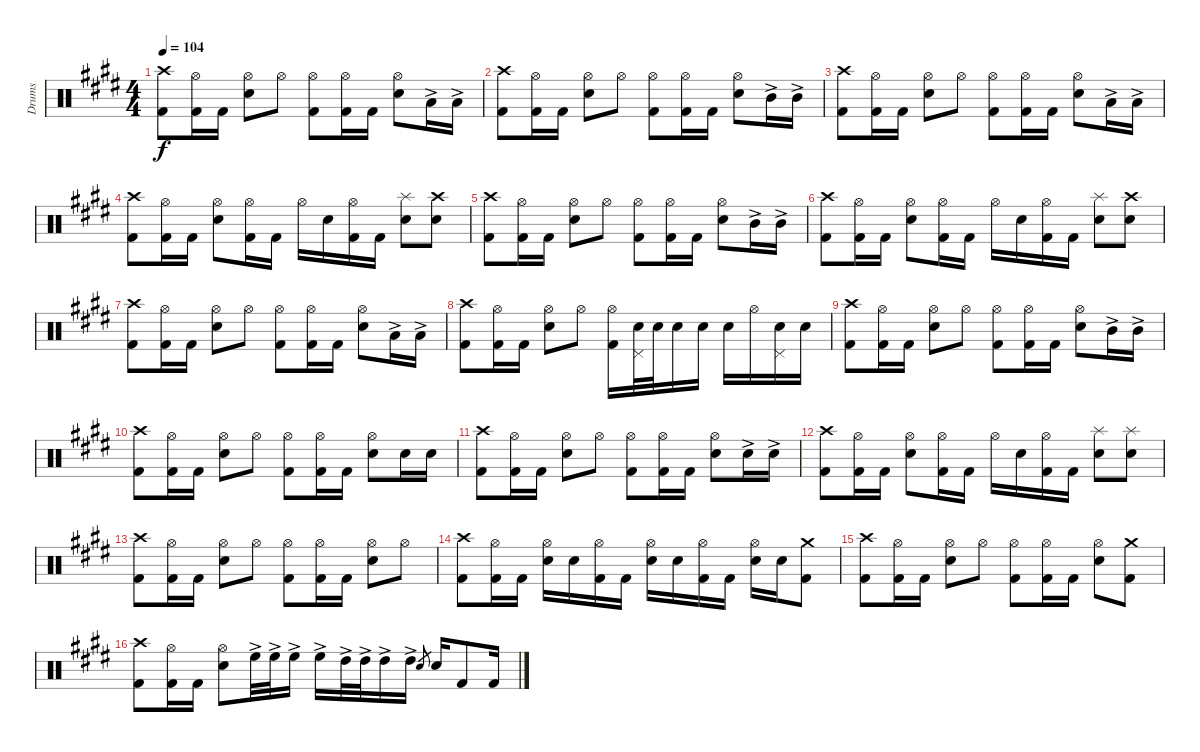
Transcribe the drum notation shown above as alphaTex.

\defaultSystemsLayout 4
\bracketExtendMode groupsimilarinstruments
\otherSystemsTrackNameOrientation horizontal
\track ("Drumkit" "Drums") {multiBarRest instrument percussion}
\staff {score}
\articulation defaults
\ts (4 4)
\tempo 104
\clef neutral
\ks c#minor
("Crash high (hit)"{acc forcenatural} "Kick (hit) 2"{acc forcenatural}).8{dy f} ("Kick (hit) 2"{acc forcenatural} "Hi-Hat (open)"{acc forcenatural}).16 "Kick (hit) 2"{acc forcenatural}.16 ("Hi-Hat (open)"{acc forcenatural} "Snare (hit) 2"{acc forcenatural}).8 "Hi-Hat (open)"{acc forcenatural}.8 ("Hi-Hat (open)"{acc forcenatural} "Kick (hit) 2"{acc forcenatural}).8 ("Kick (hit) 2"{acc forcenatural} "Hi-Hat (open)"{acc forcenatural}).16 "Kick (hit) 2"{acc forcenatural}.16 ("Hi-Hat (open)"{acc forcenatural} "Snare (hit) 2"{acc forcenatural}).8 "Low Tom (hit)"{ac acc forcenatural}.16 "Low Tom (hit)"{ac acc forcenatural}.16 |
("Crash high (hit)"{acc forcenatural} "Kick (hit) 2"{acc forcenatural}).8 ("Kick (hit) 2"{acc forcenatural} "Hi-Hat (open)"{acc forcenatural}).16 "Kick (hit) 2"{acc forcenatural}.16 ("Hi-Hat (open)"{acc forcenatural} "Snare (hit) 2"{acc forcenatural}).8 "Hi-Hat (open)"{acc forcenatural}.8 ("Hi-Hat (open)"{acc forcenatural} "Kick (hit) 2"{acc forcenatural}).8 ("Kick (hit) 2"{acc forcenatural} "Hi-Hat (open)"{acc forcenatural}).16 "Kick (hit) 2"{acc forcenatural}.16 ("Hi-Hat (open)"{acc forcenatural} "Snare (hit) 2"{acc forcenatural}).8 "Mid Tom (hit)"{ac acc forcenatural}.16 "Mid Tom (hit)"{ac acc forcenatural}.16 |
("Crash high (hit)"{acc forcenatural} "Kick (hit) 2"{acc forcenatural}).8 ("Kick (hit) 2"{acc forcenatural} "Hi-Hat (open)"{acc forcenatural}).16 "Kick (hit) 2"{acc forcenatural}.16 ("Hi-Hat (open)"{acc forcenatural} "Snare (hit) 2"{acc forcenatural}).8 "Hi-Hat (open)"{acc forcenatural}.8 ("Hi-Hat (open)"{acc forcenatural} "Kick (hit) 2"{acc forcenatural}).8 ("Kick (hit) 2"{acc forcenatural} "Hi-Hat (open)"{acc forcenatural}).16 "Kick (hit) 2"{acc forcenatural}.16 ("Hi-Hat (open)"{acc forcenatural} "Snare (hit) 2"{acc forcenatural}).8 "Low Tom (hit)"{ac acc forcenatural}.16 "Low Tom (hit)"{ac acc forcenatural}.16 |
("Crash high (hit)"{acc forcenatural} "Kick (hit) 2"{acc forcenatural}).8 ("Kick (hit) 2"{acc forcenatural} "Hi-Hat (open)"{acc forcenatural}).16 "Kick (hit) 2"{acc forcenatural}.16 ("Hi-Hat (open)"{acc forcenatural} "Snare (hit) 2"{acc forcenatural}).8 ("Hi-Hat (open)"{acc forcenatural} "Kick (hit) 2"{acc forcenatural}).16 "Kick (hit) 2"{acc forcenatural}.16 "Hi-Hat (open)"{acc forcenatural}.16 "Snare (hit) 2"{acc forcenatural}.16 ("Kick (hit) 2"{acc forcenatural} "Hi-Hat (open)"{acc forcenatural}).16 "Kick (hit) 2"{acc forcenatural}.16 ("Snare (hit) 2"{acc forcenatural} "Splash (hit)"{acc forcenatural}).8 ("Snare (hit) 2"{acc forcenatural} "Crash high (hit)"{acc forcenatural}).8 |
("Crash high (hit)"{acc forcenatural} "Kick (hit) 2"{acc forcenatural}).8 ("Kick (hit) 2"{acc forcenatural} "Hi-Hat (open)"{acc forcenatural}).16 "Kick (hit) 2"{acc forcenatural}.16 ("Hi-Hat (open)"{acc forcenatural} "Snare (hit) 2"{acc forcenatural}).8 "Hi-Hat (open)"{acc forcenatural}.8 ("Hi-Hat (open)"{acc forcenatural} "Kick (hit) 2"{acc forcenatural}).8 ("Kick (hit) 2"{acc forcenatural} "Hi-Hat (open)"{acc forcenatural}).16 "Kick (hit) 2"{acc forcenatural}.16 ("Hi-Hat (open)"{acc forcenatural} "Snare (hit) 2"{acc forcenatural}).8 "Mid Tom (hit)"{ac acc forcenatural}.16 "Mid Tom (hit)"{ac acc forcenatural}.16 |
("Crash high (hit)"{acc forcenatural} "Kick (hit) 2"{acc forcenatural}).8 ("Kick (hit) 2"{acc forcenatural} "Hi-Hat (open)"{acc forcenatural}).16 "Kick (hit) 2"{acc forcenatural}.16 ("Hi-Hat (open)"{acc forcenatural} "Snare (hit) 2"{acc forcenatural}).8 ("Hi-Hat (open)"{acc forcenatural} "Kick (hit) 2"{acc forcenatural}).16 "Kick (hit) 2"{acc forcenatural}.16 "Hi-Hat (open)"{acc forcenatural}.16 "Snare (hit) 2"{acc forcenatural}.16 ("Kick (hit) 2"{acc forcenatural} "Hi-Hat (open)"{acc forcenatural}).16 "Kick (hit) 2"{acc forcenatural}.16 ("Snare (hit) 2"{acc forcenatural} "Splash (hit)"{acc forcenatural}).8 ("Snare (hit) 2"{acc forcenatural} "Crash high (hit)"{acc forcenatural}).8 |
("Crash high (hit)"{acc forcenatural} "Kick (hit) 2"{acc forcenatural}).8 ("Kick (hit) 2"{acc forcenatural} "Hi-Hat (open)"{acc forcenatural}).16 "Kick (hit) 2"{acc forcenatural}.16 ("Hi-Hat (open)"{acc forcenatural} "Snare (hit) 2"{acc forcenatural}).8 "Hi-Hat (open)"{acc forcenatural}.8 ("Hi-Hat (open)"{acc forcenatural} "Kick (hit) 2"{acc forcenatural}).8 ("Kick (hit) 2"{acc forcenatural} "Hi-Hat (open)"{acc forcenatural}).16 "Kick (hit) 2"{acc forcenatural}.16 ("Hi-Hat (open)"{acc forcenatural} "Snare (hit) 2"{acc forcenatural}).8 "Low Tom (hit)"{ac acc forcenatural}.16 "Low Tom (hit)"{ac acc forcenatural}.16 |
("Crash high (hit)"{acc forcenatural} "Kick (hit) 2"{acc forcenatural}).8 ("Kick (hit) 2"{acc forcenatural} "Hi-Hat (open)"{acc forcenatural}).16 "Kick (hit) 2"{acc forcenatural}.16 ("Hi-Hat (open)"{acc forcenatural} "Snare (hit) 2"{acc forcenatural}).8 "Hi-Hat (open)"{acc forcenatural}.8 ("Hi-Hat (open)"{acc forcenatural} "Kick (hit) 2"{acc forcenatural}).16 ("Snare (hit) 2"{acc forcenatural} "Pedal Hi-Hat (hit)"{acc forcenatural}).32 "Snare (hit) 2"{acc forcenatural}.32 "Snare (hit) 2"{acc forcenatural}.16 "Snare (hit) 2"{acc forcenatural}.16 "Snare (hit) 2"{acc forcenatural}.16 "Hi-Hat (open)"{acc forcenatural}.16 ("Snare (hit) 2"{acc forcenatural} "Pedal Hi-Hat (hit)"{acc forcenatural}).16 "Snare (hit) 2"{acc forcenatural}.16 |
("Crash high (hit)"{acc forcenatural} "Kick (hit) 2"{acc forcenatural}).8 ("Kick (hit) 2"{acc forcenatural} "Hi-Hat (open)"{acc forcenatural}).16 "Kick (hit) 2"{acc forcenatural}.16 ("Hi-Hat (open)"{acc forcenatural} "Snare (hit) 2"{acc forcenatural}).8 "Hi-Hat (open)"{acc forcenatural}.8 ("Hi-Hat (open)"{acc forcenatural} "Kick (hit) 2"{acc forcenatural}).8 ("Kick (hit) 2"{acc forcenatural} "Hi-Hat (open)"{acc forcenatural}).16 "Kick (hit) 2"{acc forcenatural}.16 ("Hi-Hat (open)"{acc forcenatural} "Snare (hit) 2"{acc forcenatural}).8 "Mid Tom (hit)"{ac acc forcenatural}.16 "Mid Tom (hit)"{ac acc forcenatural}.16 |
("Crash high (hit)"{acc forcenatural} "Kick (hit) 2"{acc forcenatural}).8 ("Kick (hit) 2"{acc forcenatural} "Hi-Hat (open)"{acc forcenatural}).16 "Kick (hit) 2"{acc forcenatural}.16 ("Hi-Hat (open)"{acc forcenatural} "Snare (hit) 2"{acc forcenatural}).8 "Hi-Hat (open)"{acc forcenatural}.8 ("Hi-Hat (open)"{acc forcenatural} "Kick (hit) 2"{acc forcenatural}).8 ("Kick (hit) 2"{acc forcenatural} "Hi-Hat (open)"{acc forcenatural}).16 "Kick (hit) 2"{acc forcenatural}.16 ("Hi-Hat (open)"{acc forcenatural} "Snare (hit) 2"{acc forcenatural}).8 "Snare (hit) 2"{acc forcenatural}.16 "Snare (hit) 2"{acc forcenatural}.16 |
("Crash high (hit)"{acc forcenatural} "Kick (hit) 2"{acc forcenatural}).8 ("Kick (hit) 2"{acc forcenatural} "Hi-Hat (open)"{acc forcenatural}).16 "Kick (hit) 2"{acc forcenatural}.16 ("Hi-Hat (open)"{acc forcenatural} "Snare (hit) 2"{acc forcenatural}).8 "Hi-Hat (open)"{acc forcenatural}.8 ("Hi-Hat (open)"{acc forcenatural} "Kick (hit) 2"{acc forcenatural}).8 ("Kick (hit) 2"{acc forcenatural} "Hi-Hat (open)"{acc forcenatural}).16 "Kick (hit) 2"{acc forcenatural}.16 ("Hi-Hat (open)"{acc forcenatural} "Snare (hit) 2"{acc forcenatural}).8 "Snare (hit) 2"{ac acc forcenatural}.16 "Snare (hit) 2"{ac acc forcenatural}.16 |
("Crash high (hit)"{acc forcenatural} "Kick (hit) 2"{acc forcenatural}).8 ("Kick (hit) 2"{acc forcenatural} "Hi-Hat (open)"{acc forcenatural}).16 "Kick (hit) 2"{acc forcenatural}.16 ("Hi-Hat (open)"{acc forcenatural} "Snare (hit) 2"{acc forcenatural}).8 ("Kick (hit) 2"{acc forcenatural} "Hi-Hat (open)"{acc forcenatural}).16 "Kick (hit) 2"{acc forcenatural}.16 "Hi-Hat (open)"{acc forcenatural}.16 "Snare (hit) 2"{acc forcenatural}.16 ("Kick (hit) 2"{acc forcenatural} "Hi-Hat (open)"{acc forcenatural}).16 "Kick (hit) 2"{acc forcenatural}.16 ("Snare (hit) 2"{acc forcenatural} "Splash (hit)"{acc forcenatural}).8 ("Snare (hit) 2"{acc forcenatural} "Splash (hit)"{acc forcenatural}).8 |
("Crash high (hit)"{acc forcenatural} "Kick (hit) 2"{acc forcenatural}).8 ("Kick (hit) 2"{acc forcenatural} "Hi-Hat (open)"{acc forcenatural}).16 "Kick (hit) 2"{acc forcenatural}.16 ("Hi-Hat (open)"{acc forcenatural} "Snare (hit) 2"{acc forcenatural}).8 "Hi-Hat (open)"{acc forcenatural}.8 ("Hi-Hat (open)"{acc forcenatural} "Kick (hit) 2"{acc forcenatural}).8 ("Kick (hit) 2"{acc forcenatural} "Hi-Hat (open)"{acc forcenatural}).16 "Kick (hit) 2"{acc forcenatural}.16 ("Hi-Hat (open)"{acc forcenatural} "Snare (hit) 2"{acc forcenatural}).8 "Hi-Hat (open)"{acc forcenatural}.8 |
("Crash high (hit)"{acc forcenatural} "Kick (hit) 2"{acc forcenatural}).8 ("Kick (hit) 2"{acc forcenatural} "Hi-Hat (open)"{acc forcenatural}).16 "Kick (hit) 2"{acc forcenatural}.16 ("Hi-Hat (open)"{acc forcenatural} "Snare (hit) 2"{acc forcenatural}).16 "Snare (hit) 2"{acc forcenatural}.16 ("Kick (hit) 2"{acc forcenatural} "Hi-Hat (open)"{acc forcenatural}).16 "Kick (hit) 2"{acc forcenatural}.16 ("Hi-Hat (open)"{acc forcenatural} "Snare (hit) 2"{acc forcenatural}).16 "Snare (hit) 2"{acc forcenatural}.16 ("Kick (hit) 2"{acc forcenatural} "Hi-Hat (open)"{acc forcenatural}).16 "Kick (hit) 2"{acc forcenatural}.16 ("Hi-Hat (open)"{acc forcenatural} "Snare (hit) 2"{acc forcenatural}).16 "Snare (hit) 2"{acc forcenatural}.16 ("Kick (hit) 2"{acc forcenatural} "Crash medium (hit)"{acc forcenatural}).8 |
("Crash high (hit)"{acc forcenatural} "Kick (hit) 2"{acc forcenatural}).8 ("Kick (hit) 2"{acc forcenatural} "Hi-Hat (open)"{acc forcenatural}).16 "Kick (hit) 2"{acc forcenatural}.16 ("Hi-Hat (open)"{acc forcenatural} "Snare (hit) 2"{acc forcenatural}).8 "Hi-Hat (open)"{acc forcenatural}.8 ("Hi-Hat (open)"{acc forcenatural} "Kick (hit) 2"{acc forcenatural}).8 ("Kick (hit) 2"{acc forcenatural} "Hi-Hat (open)"{acc forcenatural}).16 "Kick (hit) 2"{acc forcenatural}.16 ("Hi-Hat (open)"{acc forcenatural} "Snare (hit) 2"{acc forcenatural}).8 ("Crash medium (hit)"{acc forcenatural} "Kick (hit) 2"{acc forcenatural}).8 |
("Crash high (hit)"{acc forcenatural} "Kick (hit) 2"{acc forcenatural}).8 ("Kick (hit) 2"{acc forcenatural} "Hi-Hat (open)"{acc forcenatural}).16 "Kick (hit) 2"{acc forcenatural}.16 ("Hi-Hat (open)"{acc forcenatural} "Snare (hit) 2"{acc forcenatural}).8 "High Floor Tom (hit)"{ac acc forcenatural}.32 "High Floor Tom (hit)"{ac acc forcenatural}.32 "High Floor Tom (hit)"{ac acc forcenatural}.16 "High Floor Tom (hit)"{ac acc forcenatural}.16 "High Tom (hit)"{ac acc forcenatural}.32 "High Tom (hit)"{ac acc forcenatural}.32 "High Tom (hit)"{ac acc forcenatural}.16 "High Tom (hit)"{ac acc forcenatural}.16 "Snare (hit) 2"{acc forcenatural}.8{gr} "Snare (hit) 2"{acc forcenatural}.16 "Kick (hit) 2"{acc forcenatural}.8 "Kick (hit) 2"{acc forcenatural}.16
